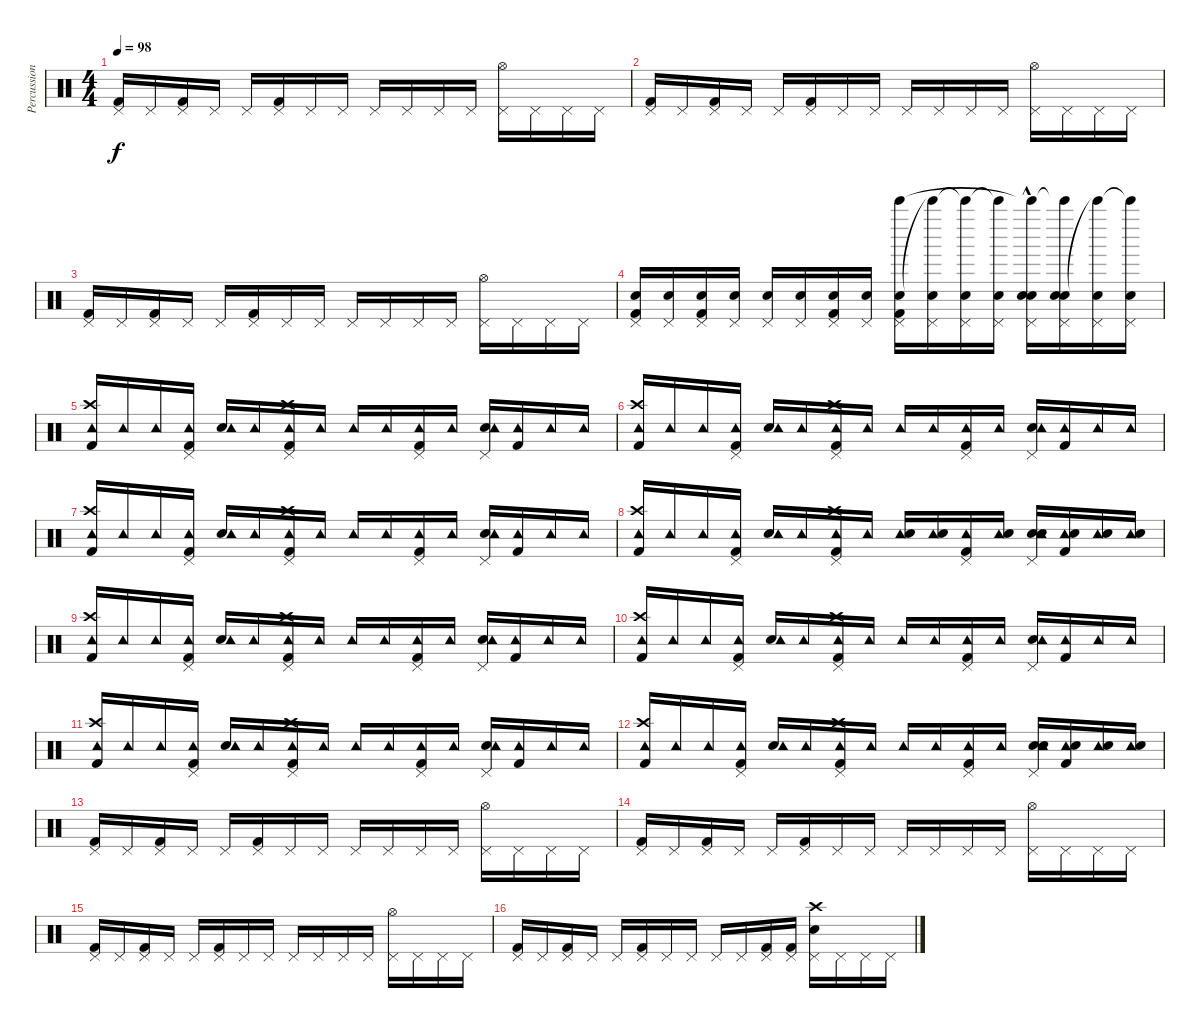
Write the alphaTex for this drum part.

\track ("Percussion" "Percussion") {instrument percussion}
\staff {score}
\articulation defaults
\ts (4 4)
\tempo 98
\clef neutral
\ks c
("Pedal Hi-Hat (hit)" "Kick (hit) 2").16{dy f} "Pedal Hi-Hat (hit)".16 ("Pedal Hi-Hat (hit)" "Kick (hit) 2").16 "Pedal Hi-Hat (hit)".16 "Pedal Hi-Hat (hit)".16 ("Pedal Hi-Hat (hit)" "Kick (hit) 2").16 "Pedal Hi-Hat (hit)".16 "Pedal Hi-Hat (hit)".16 "Pedal Hi-Hat (hit)".16 "Pedal Hi-Hat (hit)".16 "Pedal Hi-Hat (hit)".16 "Pedal Hi-Hat (hit)".16 ("Pedal Hi-Hat (hit)" "Hi-Hat (open)").16 "Pedal Hi-Hat (hit)".16 "Pedal Hi-Hat (hit)".16 "Pedal Hi-Hat (hit)".16 |
("Pedal Hi-Hat (hit)" "Kick (hit) 2").16 "Pedal Hi-Hat (hit)".16 ("Pedal Hi-Hat (hit)" "Kick (hit) 2").16 "Pedal Hi-Hat (hit)".16 "Pedal Hi-Hat (hit)".16 ("Pedal Hi-Hat (hit)" "Kick (hit) 2").16 "Pedal Hi-Hat (hit)".16 "Pedal Hi-Hat (hit)".16 "Pedal Hi-Hat (hit)".16 "Pedal Hi-Hat (hit)".16 "Pedal Hi-Hat (hit)".16 "Pedal Hi-Hat (hit)".16 ("Pedal Hi-Hat (hit)" "Hi-Hat (open)").16 "Pedal Hi-Hat (hit)".16 "Pedal Hi-Hat (hit)".16 "Pedal Hi-Hat (hit)".16 |
("Pedal Hi-Hat (hit)" "Kick (hit) 2").16 "Pedal Hi-Hat (hit)".16 ("Pedal Hi-Hat (hit)" "Kick (hit) 2").16 "Pedal Hi-Hat (hit)".16 "Pedal Hi-Hat (hit)".16 ("Pedal Hi-Hat (hit)" "Kick (hit) 2").16 "Pedal Hi-Hat (hit)".16 "Pedal Hi-Hat (hit)".16 "Pedal Hi-Hat (hit)".16 "Pedal Hi-Hat (hit)".16 "Pedal Hi-Hat (hit)".16 "Pedal Hi-Hat (hit)".16 ("Pedal Hi-Hat (hit)" "Hi-Hat (open)").16 "Pedal Hi-Hat (hit)".16 "Pedal Hi-Hat (hit)".16 "Pedal Hi-Hat (hit)".16 |
("Kick (hit) 2" "Pedal Hi-Hat (hit)" "Snare (hit) 2").16 ("Pedal Hi-Hat (hit)" "Snare (hit) 2").16 ("Kick (hit) 2" "Pedal Hi-Hat (hit)" "Snare (hit) 2").16 ("Pedal Hi-Hat (hit)" "Snare (hit) 2").16 ("Pedal Hi-Hat (hit)" "Snare (hit) 2").16 ("Pedal Hi-Hat (hit)" "Snare (hit) 2").16 ("Kick (hit) 2" "Pedal Hi-Hat (hit)" "Snare (hit) 2").16 ("Pedal Hi-Hat (hit)" "Snare (hit) 2").16 ("Kick (hit) 2" "Pedal Hi-Hat (hit)" "Snare (hit) 2" "Bell Tree (hit)").16 ("Pedal Hi-Hat (hit)" "Snare (hit) 2" "Bell Tree (hit)"{t}).16 ("Pedal Hi-Hat (hit)" "Snare (hit) 2" "Bell Tree (hit)"{t}).16 ("Pedal Hi-Hat (hit)" "Snare (hit) 2" "Bell Tree (hit)"{t}).16 ("Snare (hit) 2" "Pedal Hi-Hat (hit)"{hac} "Snare (hit) 2" "Bell Tree (hit)"{t}).16 ("Snare (hit) 2" "Pedal Hi-Hat (hit)" "Snare (hit) 2" "Bell Tree (hit)"{t}).16 ("Pedal Hi-Hat (hit)" "Snare (hit) 2" "Bell Tree (hit)"{t}).16 ("Pedal Hi-Hat (hit)" "Snare (hit) 2" "Bell Tree (hit)"{t}).16 |
("Crash high (hit)" "Kick (hit) 2" "Tambourine (hit)").16 "Tambourine (hit)".16 "Tambourine (hit)".16 ("Pedal Hi-Hat (hit)" "Kick (hit) 2" "Tambourine (hit)").16 ("Snare (hit) 2" "Tambourine (hit)").16 "Tambourine (hit)".16 ("Crash high (hit)" "Kick (hit) 2" "Tambourine (hit)" "Pedal Hi-Hat (hit)").16 "Tambourine (hit)".16 "Tambourine (hit)".16 "Tambourine (hit)".16 ("Pedal Hi-Hat (hit)" "Kick (hit) 2" "Tambourine (hit)").16 "Tambourine (hit)".16 ("Pedal Hi-Hat (hit)" "Snare (hit) 2" "Tambourine (hit)").16 ("Kick (hit) 2" "Tambourine (hit)").16 "Tambourine (hit)".16 "Tambourine (hit)".16 |
("Crash high (hit)" "Kick (hit) 2" "Tambourine (hit)").16 "Tambourine (hit)".16 "Tambourine (hit)".16 ("Pedal Hi-Hat (hit)" "Kick (hit) 2" "Tambourine (hit)").16 ("Snare (hit) 2" "Tambourine (hit)").16 "Tambourine (hit)".16 ("Crash high (hit)" "Kick (hit) 2" "Tambourine (hit)" "Pedal Hi-Hat (hit)").16 "Tambourine (hit)".16 "Tambourine (hit)".16 "Tambourine (hit)".16 ("Pedal Hi-Hat (hit)" "Kick (hit) 2" "Tambourine (hit)").16 "Tambourine (hit)".16 ("Pedal Hi-Hat (hit)" "Snare (hit) 2" "Tambourine (hit)").16 ("Kick (hit) 2" "Tambourine (hit)").16 "Tambourine (hit)".16 "Tambourine (hit)".16 |
("Crash high (hit)" "Kick (hit) 2" "Tambourine (hit)").16 "Tambourine (hit)".16 "Tambourine (hit)".16 ("Pedal Hi-Hat (hit)" "Kick (hit) 2" "Tambourine (hit)").16 ("Snare (hit) 2" "Tambourine (hit)").16 "Tambourine (hit)".16 ("Crash high (hit)" "Kick (hit) 2" "Tambourine (hit)" "Pedal Hi-Hat (hit)").16 "Tambourine (hit)".16 "Tambourine (hit)".16 "Tambourine (hit)".16 ("Pedal Hi-Hat (hit)" "Kick (hit) 2" "Tambourine (hit)").16 "Tambourine (hit)".16 ("Pedal Hi-Hat (hit)" "Snare (hit) 2" "Tambourine (hit)").16 ("Kick (hit) 2" "Tambourine (hit)").16 "Tambourine (hit)".16 "Tambourine (hit)".16 |
("Crash high (hit)" "Kick (hit) 2" "Tambourine (hit)").16 "Tambourine (hit)".16 "Tambourine (hit)".16 ("Pedal Hi-Hat (hit)" "Kick (hit) 2" "Tambourine (hit)").16 ("Snare (hit) 2" "Tambourine (hit)").16 "Tambourine (hit)".16 ("Crash high (hit)" "Kick (hit) 2" "Tambourine (hit)" "Pedal Hi-Hat (hit)").16 "Tambourine (hit)".16 ("Tambourine (hit)" "Snare (hit) 2").16 ("Tambourine (hit)" "Snare (hit) 2").16 ("Pedal Hi-Hat (hit)" "Kick (hit) 2" "Tambourine (hit)").16 ("Tambourine (hit)" "Snare (hit) 2").16 ("Pedal Hi-Hat (hit)" "Snare (hit) 2" "Tambourine (hit)" "Snare (hit) 2").16 ("Kick (hit) 2" "Tambourine (hit)" "Snare (hit) 2").16 ("Tambourine (hit)" "Snare (hit) 2").16 ("Tambourine (hit)" "Snare (hit) 2").16 |
("Crash high (hit)" "Kick (hit) 2" "Tambourine (hit)").16 "Tambourine (hit)".16 "Tambourine (hit)".16 ("Pedal Hi-Hat (hit)" "Kick (hit) 2" "Tambourine (hit)").16 ("Snare (hit) 2" "Tambourine (hit)").16 "Tambourine (hit)".16 ("Crash high (hit)" "Kick (hit) 2" "Tambourine (hit)" "Pedal Hi-Hat (hit)").16 "Tambourine (hit)".16 "Tambourine (hit)".16 "Tambourine (hit)".16 ("Pedal Hi-Hat (hit)" "Kick (hit) 2" "Tambourine (hit)").16 "Tambourine (hit)".16 ("Pedal Hi-Hat (hit)" "Snare (hit) 2" "Tambourine (hit)").16 ("Kick (hit) 2" "Tambourine (hit)").16 "Tambourine (hit)".16 "Tambourine (hit)".16 |
("Crash high (hit)" "Kick (hit) 2" "Tambourine (hit)").16 "Tambourine (hit)".16 "Tambourine (hit)".16 ("Pedal Hi-Hat (hit)" "Kick (hit) 2" "Tambourine (hit)").16 ("Snare (hit) 2" "Tambourine (hit)").16 "Tambourine (hit)".16 ("Crash high (hit)" "Kick (hit) 2" "Tambourine (hit)" "Pedal Hi-Hat (hit)").16 "Tambourine (hit)".16 "Tambourine (hit)".16 "Tambourine (hit)".16 ("Pedal Hi-Hat (hit)" "Kick (hit) 2" "Tambourine (hit)").16 "Tambourine (hit)".16 ("Pedal Hi-Hat (hit)" "Snare (hit) 2" "Tambourine (hit)").16 ("Kick (hit) 2" "Tambourine (hit)").16 "Tambourine (hit)".16 "Tambourine (hit)".16 |
("Crash high (hit)" "Kick (hit) 2" "Tambourine (hit)").16 "Tambourine (hit)".16 "Tambourine (hit)".16 ("Pedal Hi-Hat (hit)" "Kick (hit) 2" "Tambourine (hit)").16 ("Snare (hit) 2" "Tambourine (hit)").16 "Tambourine (hit)".16 ("Crash high (hit)" "Kick (hit) 2" "Tambourine (hit)" "Pedal Hi-Hat (hit)").16 "Tambourine (hit)".16 "Tambourine (hit)".16 "Tambourine (hit)".16 ("Pedal Hi-Hat (hit)" "Kick (hit) 2" "Tambourine (hit)").16 "Tambourine (hit)".16 ("Pedal Hi-Hat (hit)" "Snare (hit) 2" "Tambourine (hit)").16 ("Kick (hit) 2" "Tambourine (hit)").16 "Tambourine (hit)".16 "Tambourine (hit)".16 |
("Crash high (hit)" "Kick (hit) 2" "Tambourine (hit)").16 "Tambourine (hit)".16 "Tambourine (hit)".16 ("Pedal Hi-Hat (hit)" "Kick (hit) 2" "Tambourine (hit)").16 ("Snare (hit) 2" "Tambourine (hit)").16 "Tambourine (hit)".16 ("Crash high (hit)" "Kick (hit) 2" "Tambourine (hit)" "Pedal Hi-Hat (hit)").16 "Tambourine (hit)".16 "Tambourine (hit)".16 "Tambourine (hit)".16 ("Pedal Hi-Hat (hit)" "Kick (hit) 2" "Tambourine (hit)").16 "Tambourine (hit)".16 ("Pedal Hi-Hat (hit)" "Snare (hit) 2" "Tambourine (hit)" "Snare (hit) 2").16 ("Kick (hit) 2" "Tambourine (hit)" "Snare (hit) 2").16 ("Tambourine (hit)" "Snare (hit) 2").16 ("Tambourine (hit)" "Snare (hit) 2").16 |
("Pedal Hi-Hat (hit)" "Kick (hit) 2").16 "Pedal Hi-Hat (hit)".16 ("Pedal Hi-Hat (hit)" "Kick (hit) 2").16 "Pedal Hi-Hat (hit)".16 "Pedal Hi-Hat (hit)".16 ("Pedal Hi-Hat (hit)" "Kick (hit) 2").16 "Pedal Hi-Hat (hit)".16 "Pedal Hi-Hat (hit)".16 "Pedal Hi-Hat (hit)".16 "Pedal Hi-Hat (hit)".16 "Pedal Hi-Hat (hit)".16 "Pedal Hi-Hat (hit)".16 ("Pedal Hi-Hat (hit)" "Hi-Hat (open)").16 "Pedal Hi-Hat (hit)".16 "Pedal Hi-Hat (hit)".16 "Pedal Hi-Hat (hit)".16 |
("Pedal Hi-Hat (hit)" "Kick (hit) 2").16 "Pedal Hi-Hat (hit)".16 ("Pedal Hi-Hat (hit)" "Kick (hit) 2").16 "Pedal Hi-Hat (hit)".16 "Pedal Hi-Hat (hit)".16 ("Pedal Hi-Hat (hit)" "Kick (hit) 2").16 "Pedal Hi-Hat (hit)".16 "Pedal Hi-Hat (hit)".16 "Pedal Hi-Hat (hit)".16 "Pedal Hi-Hat (hit)".16 "Pedal Hi-Hat (hit)".16 "Pedal Hi-Hat (hit)".16 ("Pedal Hi-Hat (hit)" "Hi-Hat (open)").16 "Pedal Hi-Hat (hit)".16 "Pedal Hi-Hat (hit)".16 "Pedal Hi-Hat (hit)".16 |
("Pedal Hi-Hat (hit)" "Kick (hit) 2").16 "Pedal Hi-Hat (hit)".16 ("Pedal Hi-Hat (hit)" "Kick (hit) 2").16 "Pedal Hi-Hat (hit)".16 "Pedal Hi-Hat (hit)".16 ("Pedal Hi-Hat (hit)" "Kick (hit) 2").16 "Pedal Hi-Hat (hit)".16 "Pedal Hi-Hat (hit)".16 "Pedal Hi-Hat (hit)".16 "Pedal Hi-Hat (hit)".16 "Pedal Hi-Hat (hit)".16 "Pedal Hi-Hat (hit)".16 ("Pedal Hi-Hat (hit)" "Hi-Hat (open)").16 "Pedal Hi-Hat (hit)".16 "Pedal Hi-Hat (hit)".16 "Pedal Hi-Hat (hit)".16 |
("Pedal Hi-Hat (hit)" "Kick (hit) 2").16 "Pedal Hi-Hat (hit)".16 ("Pedal Hi-Hat (hit)" "Kick (hit) 2").16 "Pedal Hi-Hat (hit)".16 "Pedal Hi-Hat (hit)".16 ("Pedal Hi-Hat (hit)" "Kick (hit) 2").16 "Pedal Hi-Hat (hit)".16 "Pedal Hi-Hat (hit)".16 "Pedal Hi-Hat (hit)".16 "Pedal Hi-Hat (hit)".16 ("Pedal Hi-Hat (hit)" "Kick (hit) 2").16 ("Pedal Hi-Hat (hit)" "Kick (hit) 2").16 ("Crash high (hit)" "Pedal Hi-Hat (hit)" "Snare (hit) 2").16 "Pedal Hi-Hat (hit)".16 "Pedal Hi-Hat (hit)".16 "Pedal Hi-Hat (hit)".16
